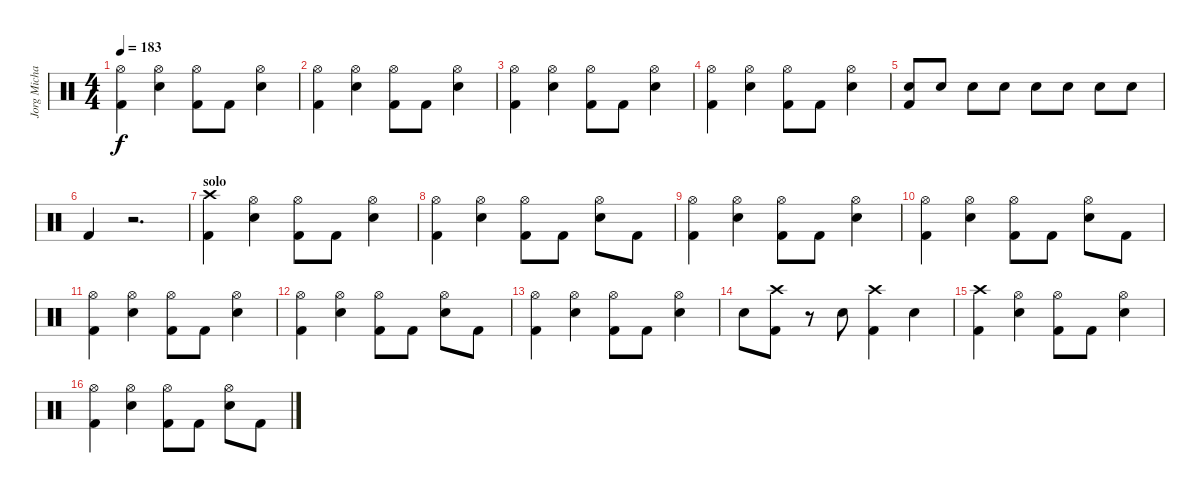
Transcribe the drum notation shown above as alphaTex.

\track ("Jorg Michael" "Jorg Micha") {instrument percussion}
\staff {score}
\articulation defaults
\ts (4 4)
\tempo 183
\clef neutral
\ks c
("Kick (hit) 2" "Hi-Hat (open)").4{dy f} ("Snare (hit) 2" "Hi-Hat (open)").4 ("Kick (hit) 2" "Hi-Hat (open)").8 "Kick (hit) 2".8 ("Snare (hit) 2" "Hi-Hat (open)").4 |
("Kick (hit) 2" "Hi-Hat (open)").4 ("Snare (hit) 2" "Hi-Hat (open)").4 ("Kick (hit) 2" "Hi-Hat (open)").8 "Kick (hit) 2".8 ("Snare (hit) 2" "Hi-Hat (open)").4 |
("Kick (hit) 2" "Hi-Hat (open)").4 ("Snare (hit) 2" "Hi-Hat (open)").4 ("Kick (hit) 2" "Hi-Hat (open)").8 "Kick (hit) 2".8 ("Snare (hit) 2" "Hi-Hat (open)").4 |
("Kick (hit) 2" "Hi-Hat (open)").4 ("Snare (hit) 2" "Hi-Hat (open)").4 ("Kick (hit) 2" "Hi-Hat (open)").8 "Kick (hit) 2".8 ("Snare (hit) 2" "Hi-Hat (open)").4 |
("Snare (hit) 2" "Kick (hit) 2").8 "Snare (hit) 2".8 "Snare (hit) 2".8 "Snare (hit) 2".8 "Snare (hit) 2".8 "Snare (hit) 2".8 "Snare (hit) 2".8 "Snare (hit) 2".8 |
"Kick (hit) 2".4 r.2{d} |
\section ("" "solo")
("Kick (hit) 2" "Crash high (hit)").4 ("Snare (hit) 2" "Hi-Hat (open)").4 ("Kick (hit) 2" "Hi-Hat (open)").8 "Kick (hit) 2".8 ("Snare (hit) 2" "Hi-Hat (open)").4 |
("Kick (hit) 2" "Hi-Hat (open)").4 ("Snare (hit) 2" "Hi-Hat (open)").4 ("Kick (hit) 2" "Hi-Hat (open)").8 "Kick (hit) 2".8 ("Snare (hit) 2" "Hi-Hat (open)").8 "Kick (hit) 2".8 |
("Kick (hit) 2" "Hi-Hat (open)").4 ("Snare (hit) 2" "Hi-Hat (open)").4 ("Kick (hit) 2" "Hi-Hat (open)").8 "Kick (hit) 2".8 ("Snare (hit) 2" "Hi-Hat (open)").4 |
("Kick (hit) 2" "Hi-Hat (open)").4 ("Snare (hit) 2" "Hi-Hat (open)").4 ("Kick (hit) 2" "Hi-Hat (open)").8 "Kick (hit) 2".8 ("Snare (hit) 2" "Hi-Hat (open)").8 "Kick (hit) 2".8 |
("Kick (hit) 2" "Hi-Hat (open)").4 ("Snare (hit) 2" "Hi-Hat (open)").4 ("Kick (hit) 2" "Hi-Hat (open)").8 "Kick (hit) 2".8 ("Snare (hit) 2" "Hi-Hat (open)").4 |
("Kick (hit) 2" "Hi-Hat (open)").4 ("Snare (hit) 2" "Hi-Hat (open)").4 ("Kick (hit) 2" "Hi-Hat (open)").8 "Kick (hit) 2".8 ("Snare (hit) 2" "Hi-Hat (open)").8 "Kick (hit) 2".8 |
("Kick (hit) 2" "Hi-Hat (open)").4 ("Snare (hit) 2" "Hi-Hat (open)").4 ("Kick (hit) 2" "Hi-Hat (open)").8 "Kick (hit) 2".8 ("Snare (hit) 2" "Hi-Hat (open)").4 |
"Snare (hit) 2".8 ("Kick (hit) 2" "Crash high (hit)").8 r.8 "Snare (hit) 2".8 ("Kick (hit) 2" "Crash high (hit)").4 "Snare (hit) 2".4 |
("Kick (hit) 2" "Crash high (hit)").4 ("Snare (hit) 2" "Hi-Hat (open)").4 ("Kick (hit) 2" "Hi-Hat (open)").8 "Kick (hit) 2".8 ("Snare (hit) 2" "Hi-Hat (open)").4 |
("Kick (hit) 2" "Hi-Hat (open)").4 ("Snare (hit) 2" "Hi-Hat (open)").4 ("Kick (hit) 2" "Hi-Hat (open)").8 "Kick (hit) 2".8 ("Snare (hit) 2" "Hi-Hat (open)").8 "Kick (hit) 2".8
